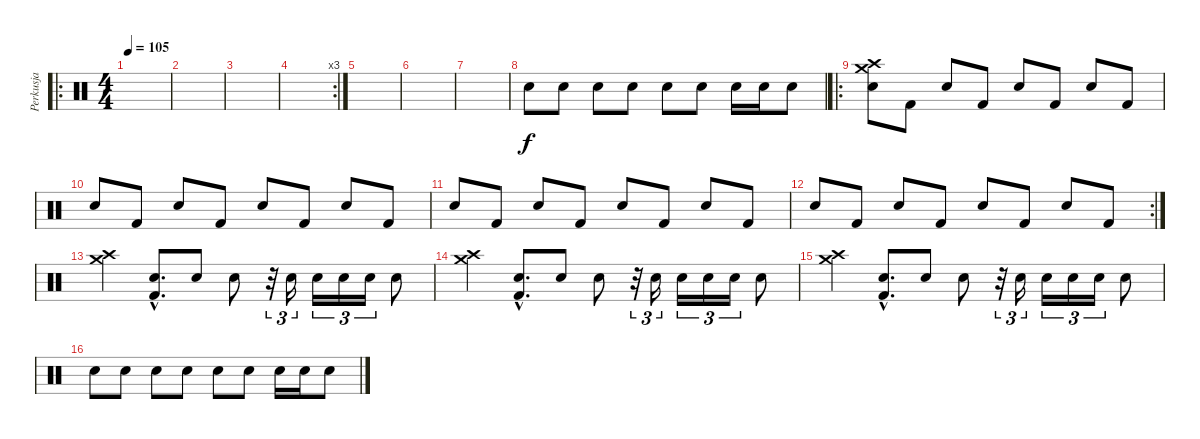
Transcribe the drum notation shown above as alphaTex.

\track ("Perkusja" "Perkusja") {instrument percussion}
\staff {score}
\articulation defaults
\ro
\ts (4 4)
\tempo 105
\clef neutral
\ks c
|
|
|
\rc 3
|
|
|
|
"Electric Snare (hit)".8 "Electric Snare (hit)".8 "Electric Snare (hit)".8 "Snare (hit) 2".8 "Electric Snare (hit)".8 "Electric Snare (hit)".8 "Electric Snare (hit)".16 "Electric Snare (hit)".16 "Electric Snare (hit)".8 |
\ro
("Crash high (hit)" "Crash medium (hit)" "Electric Snare (hit)").8 "Kick (hit) 2".8 "Electric Snare (hit)".8 "Kick (hit) 2".8 "Electric Snare (hit)".8 "Kick (hit) 2".8 "Electric Snare (hit)".8 "Kick (hit) 2".8 |
"Electric Snare (hit)".8 "Kick (hit) 2".8 "Electric Snare (hit)".8 "Kick (hit) 2".8 "Electric Snare (hit)".8 "Kick (hit) 2".8 "Electric Snare (hit)".8 "Kick (hit) 2".8 |
"Electric Snare (hit)".8 "Kick (hit) 2".8 "Electric Snare (hit)".8 "Kick (hit) 2".8 "Electric Snare (hit)".8 "Kick (hit) 2".8 "Electric Snare (hit)".8 "Kick (hit) 2".8 |
\rc 2 "Electric Snare (hit)".8 "Kick (hit) 2".8 "Electric Snare (hit)".8 "Kick (hit) 2".8 "Electric Snare (hit)".8 "Kick (hit) 2".8 "Electric Snare (hit)".8 "Kick (hit) 2".8
|
("Crash high (hit)" "Crash medium (hit)").4 ("Kick (hit) 2"{hac} "Electric Snare (hit)"{hac}).8{d} "Electric Snare (hit)".8 "Electric Snare (hit)".8 r.32{tu (3 2)} "Electric Snare (hit)".16{tu (3 2)} "Electric Snare (hit)".16{tu (3 2)} "Electric Snare (hit)".16{tu (3 2)} "Electric Snare (hit)".16{tu (3 2)} "Electric Snare (hit)".8 |
("Crash high (hit)" "Crash medium (hit)").4 ("Kick (hit) 2"{hac} "Electric Snare (hit)"{hac}).8{d} "Electric Snare (hit)".8 "Electric Snare (hit)".8 r.32{tu (3 2)} "Electric Snare (hit)".16{tu (3 2)} "Electric Snare (hit)".16{tu (3 2)} "Electric Snare (hit)".16{tu (3 2)} "Electric Snare (hit)".16{tu (3 2)} "Electric Snare (hit)".8 |
("Crash high (hit)" "Crash medium (hit)").4 ("Kick (hit) 2"{hac} "Electric Snare (hit)"{hac}).8{d} "Electric Snare (hit)".8 "Electric Snare (hit)".8 r.32{tu (3 2)} "Electric Snare (hit)".16{tu (3 2)} "Electric Snare (hit)".16{tu (3 2)} "Electric Snare (hit)".16{tu (3 2)} "Electric Snare (hit)".16{tu (3 2)} "Electric Snare (hit)".8 |
"Electric Snare (hit)".8 "Electric Snare (hit)".8 "Electric Snare (hit)".8 "Snare (hit) 2".8 "Electric Snare (hit)".8 "Electric Snare (hit)".8 "Electric Snare (hit)".16 "Electric Snare (hit)".16 "Electric Snare (hit)".8
